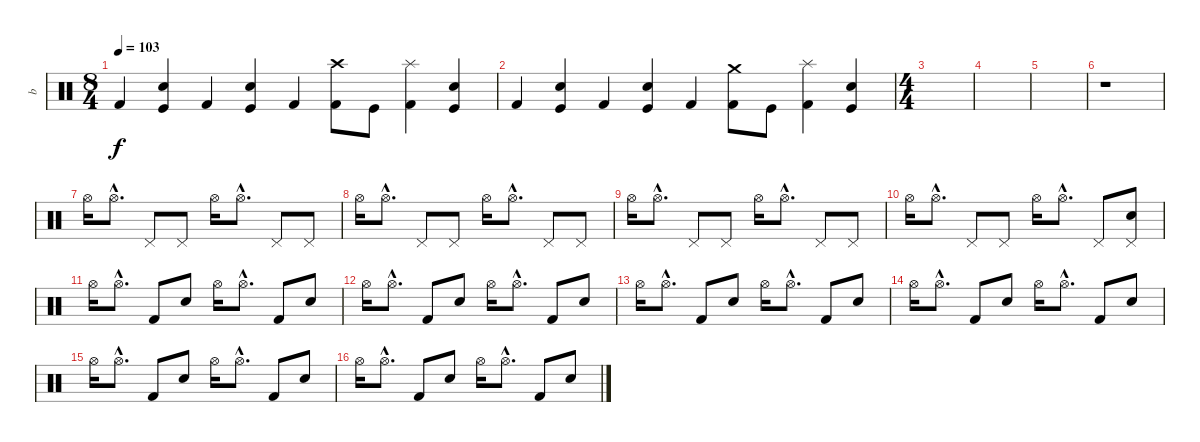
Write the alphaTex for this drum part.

\track ("b" "b") {instrument percussion}
\staff {score}
\articulation defaults
\ts (8 4)
\tempo 103
\clef neutral
\ks c "Kick (hit) 2".4{dy f}
("Snare (hit) 2" "Kick (hit)").4 "Kick (hit) 2".4 ("Snare (hit) 2" "Kick (hit)").4 "Kick (hit) 2".4 ("Crash high (hit)" "Kick (hit) 2").8 "Kick (hit)".8 ("Splash (hit)" "Kick (hit) 2").4 ("Snare (hit) 2" "Kick (hit)").4 |
"Kick (hit) 2".4{volume 0} ("Snare (hit) 2" "Kick (hit)").4 "Kick (hit) 2".4 ("Snare (hit) 2" "Kick (hit)").4 "Kick (hit) 2".4 ("Crash medium (hit)" "Kick (hit) 2").8 "Kick (hit)".8 ("Splash (hit)" "Kick (hit) 2").4 ("Snare (hit) 2" "Kick (hit)").4 |
\ts (4 4)
|
|
|
r.1{volume 10} |
"Hi-Hat (open)".16 "Hi-Hat (open)"{hac}.8{d} "Pedal Hi-Hat (hit)".8 "Pedal Hi-Hat (hit)".8 "Hi-Hat (open)".16 "Hi-Hat (open)"{hac}.8{d} "Pedal Hi-Hat (hit)".8 "Pedal Hi-Hat (hit)".8 |
"Hi-Hat (open)".16 "Hi-Hat (open)"{hac}.8{d} "Pedal Hi-Hat (hit)".8 "Pedal Hi-Hat (hit)".8 "Hi-Hat (open)".16 "Hi-Hat (open)"{hac}.8{d} "Pedal Hi-Hat (hit)".8 "Pedal Hi-Hat (hit)".8 |
"Hi-Hat (open)".16 "Hi-Hat (open)"{hac}.8{d} "Pedal Hi-Hat (hit)".8 "Pedal Hi-Hat (hit)".8 "Hi-Hat (open)".16 "Hi-Hat (open)"{hac}.8{d} "Pedal Hi-Hat (hit)".8 "Pedal Hi-Hat (hit)".8 |
"Hi-Hat (open)".16 "Hi-Hat (open)"{hac}.8{d} "Pedal Hi-Hat (hit)".8 "Pedal Hi-Hat (hit)".8 "Hi-Hat (open)".16 "Hi-Hat (open)"{hac}.8{d} "Pedal Hi-Hat (hit)".8 ("Pedal Hi-Hat (hit)" "Snare (hit) 2").8 |
"Hi-Hat (open)".16 "Hi-Hat (open)"{hac}.8{d} "Kick (hit) 2".8 "Snare (hit) 2".8 "Hi-Hat (open)".16 "Hi-Hat (open)"{hac}.8{d} "Kick (hit) 2".8 "Snare (hit) 2".8 |
"Hi-Hat (open)".16 "Hi-Hat (open)"{hac}.8{d} "Kick (hit) 2".8 "Snare (hit) 2".8 "Hi-Hat (open)".16 "Hi-Hat (open)"{hac}.8{d} "Kick (hit) 2".8 "Snare (hit) 2".8 |
"Hi-Hat (open)".16 "Hi-Hat (open)"{hac}.8{d} "Kick (hit) 2".8 "Snare (hit) 2".8 "Hi-Hat (open)".16 "Hi-Hat (open)"{hac}.8{d} "Kick (hit) 2".8 "Snare (hit) 2".8 |
"Hi-Hat (open)".16 "Hi-Hat (open)"{hac}.8{d} "Kick (hit) 2".8 "Snare (hit) 2".8 "Hi-Hat (open)".16 "Hi-Hat (open)"{hac}.8{d} "Kick (hit) 2".8 "Snare (hit) 2".8 |
"Hi-Hat (open)".16 "Hi-Hat (open)"{hac}.8{d} "Kick (hit) 2".8 "Snare (hit) 2".8 "Hi-Hat (open)".16 "Hi-Hat (open)"{hac}.8{d} "Kick (hit) 2".8 "Snare (hit) 2".8 |
"Hi-Hat (open)".16 "Hi-Hat (open)"{hac}.8{d} "Kick (hit) 2".8 "Snare (hit) 2".8 "Hi-Hat (open)".16 "Hi-Hat (open)"{hac}.8{d} "Kick (hit) 2".8 "Snare (hit) 2".8
